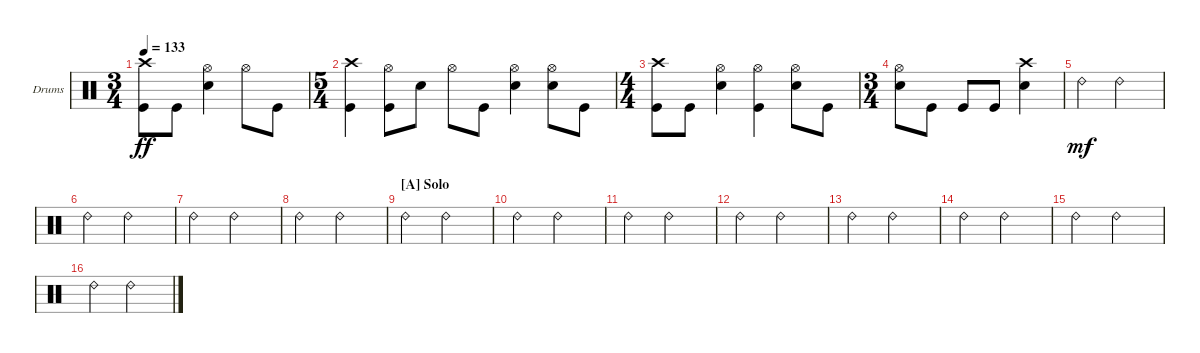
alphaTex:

\bracketExtendMode groupsimilarinstruments
\firstSystemTrackNameOrientation horizontal
\otherSystemsTrackNameOrientation horizontal
\track ("Drumkit" "Drums") {instrument percussion}
\staff {score}
\articulation defaults
\ts (3 4)
\tempo 133
\clef neutral
\ks c
("Crash high (hit)" "Kick (hit)").8{dy ff} "Kick (hit)".8 ("Hi-Hat (open)" "Snare (hit) 2").4 "Hi-Hat (open)".8 "Kick (hit)".8 |
\ts (5 4)
("Crash high (hit)" "Kick (hit)").4 ("Hi-Hat (open)" "Kick (hit)").8 "Snare (hit) 2".8 "Hi-Hat (open)".8 "Kick (hit)".8 ("Hi-Hat (open)" "Snare (hit) 2").4 ("Hi-Hat (open)" "Snare (hit) 2").8 "Kick (hit)".8 |
\ts (4 4)
("Crash high (hit)" "Kick (hit)").8 "Kick (hit)".8 ("Hi-Hat (open)" "Snare (hit) 2").4 ("Hi-Hat (open)" "Kick (hit)").4 ("Hi-Hat (open)" "Snare (hit) 2").8 "Kick (hit)".8 |
\ts (3 4)
("Hi-Hat (open)" "Snare (hit) 2").8 "Kick (hit)".8 "Kick (hit)".8 "Kick (hit)".8 ("Crash high (hit)" "Snare (hit) 2").4 |
"Ride (bell) 2".4{dy mf} "Ride (bell) 2".2 |
"Ride (bell) 2".4 "Ride (bell) 2".2 |
"Ride (bell) 2".4 "Ride (bell) 2".2 |
"Ride (bell) 2".4 "Ride (bell) 2".2 |
\section ("A" "Solo")
"Ride (bell) 2".4 "Ride (bell) 2".2 |
"Ride (bell) 2".4 "Ride (bell) 2".2 |
"Ride (bell) 2".4 "Ride (bell) 2".2 |
"Ride (bell) 2".4 "Ride (bell) 2".2 |
"Ride (bell) 2".4 "Ride (bell) 2".2 |
"Ride (bell) 2".4 "Ride (bell) 2".2 |
"Ride (bell) 2".4 "Ride (bell) 2".2 |
"Ride (bell) 2".4 "Ride (bell) 2".2
